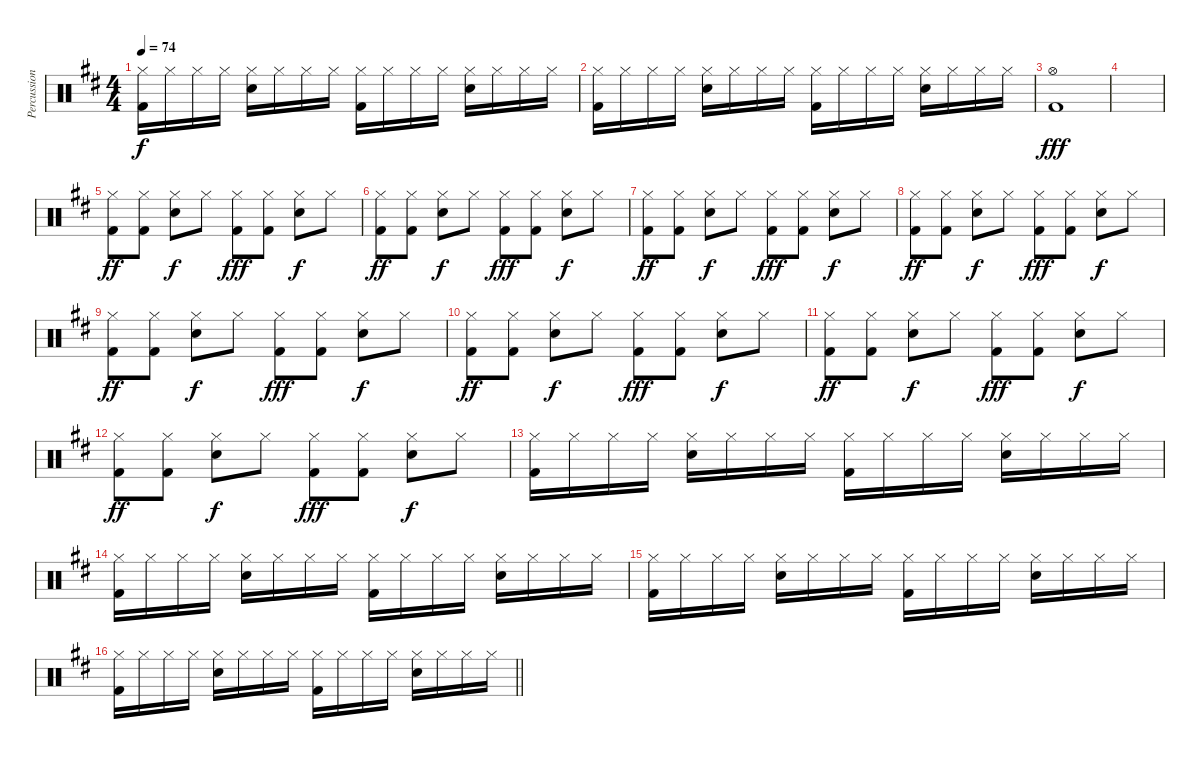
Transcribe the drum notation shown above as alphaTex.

\track ("Percussion" "Percussion") {instrument percussion}
\staff {score}
\articulation defaults
\ts (4 4)
\tempo 74
\clef neutral
\ks d
("Hi-Hat (closed)" "Kick (hit) 2").16{dy f} "Hi-Hat (closed)".16 "Hi-Hat (closed)".16 "Hi-Hat (closed)".16 ("Hi-Hat (closed)" "Snare (hit) 2").16 "Hi-Hat (closed)".16 "Hi-Hat (closed)".16 "Hi-Hat (closed)".16 ("Hi-Hat (closed)" "Kick (hit) 2").16 "Hi-Hat (closed)".16 "Hi-Hat (closed)".16 "Hi-Hat (closed)".16 ("Hi-Hat (closed)" "Snare (hit) 2").16 "Hi-Hat (closed)".16 "Hi-Hat (closed)".16 "Hi-Hat (closed)".16 |
("Hi-Hat (closed)" "Kick (hit) 2").16 "Hi-Hat (closed)".16 "Hi-Hat (closed)".16 "Hi-Hat (closed)".16 ("Hi-Hat (closed)" "Snare (hit) 2").16 "Hi-Hat (closed)".16 "Hi-Hat (closed)".16 "Hi-Hat (closed)".16 ("Hi-Hat (closed)" "Kick (hit) 2").16 "Hi-Hat (closed)".16 "Hi-Hat (closed)".16 "Hi-Hat (closed)".16 ("Hi-Hat (closed)" "Snare (hit) 2").16 "Hi-Hat (closed)".16 "Hi-Hat (closed)".16 "Hi-Hat (closed)".16 |
("Hi-Hat (open)" "Kick (hit) 2").1{dy fff} |
|
("Hi-Hat (closed)" "Kick (hit) 2").8{dy ff} ("Hi-Hat (closed)" "Kick (hit) 2").8 ("Hi-Hat (closed)" "Snare (hit) 2").8{dy f} "Hi-Hat (closed)".8 ("Hi-Hat (closed)" "Kick (hit) 2").8{dy fff} ("Hi-Hat (closed)" "Kick (hit) 2").8 ("Hi-Hat (closed)" "Snare (hit) 2").8{dy f} "Hi-Hat (closed)".8 |
("Hi-Hat (closed)" "Kick (hit) 2").8{dy ff} ("Hi-Hat (closed)" "Kick (hit) 2").8 ("Hi-Hat (closed)" "Snare (hit) 2").8{dy f} "Hi-Hat (closed)".8 ("Hi-Hat (closed)" "Kick (hit) 2").8{dy fff} ("Hi-Hat (closed)" "Kick (hit) 2").8 ("Hi-Hat (closed)" "Snare (hit) 2").8{dy f} "Hi-Hat (closed)".8 |
("Hi-Hat (closed)" "Kick (hit) 2").8{dy ff} ("Hi-Hat (closed)" "Kick (hit) 2").8 ("Hi-Hat (closed)" "Snare (hit) 2").8{dy f} "Hi-Hat (closed)".8 ("Hi-Hat (closed)" "Kick (hit) 2").8{dy fff} ("Hi-Hat (closed)" "Kick (hit) 2").8 ("Hi-Hat (closed)" "Snare (hit) 2").8{dy f} "Hi-Hat (closed)".8 |
("Hi-Hat (closed)" "Kick (hit) 2").8{dy ff} ("Hi-Hat (closed)" "Kick (hit) 2").8 ("Hi-Hat (closed)" "Snare (hit) 2").8{dy f} "Hi-Hat (closed)".8 ("Hi-Hat (closed)" "Kick (hit) 2").8{dy fff} ("Hi-Hat (closed)" "Kick (hit) 2").8 ("Hi-Hat (closed)" "Snare (hit) 2").8{dy f} "Hi-Hat (closed)".8 |
("Hi-Hat (closed)" "Kick (hit) 2").8{dy ff} ("Hi-Hat (closed)" "Kick (hit) 2").8 ("Hi-Hat (closed)" "Snare (hit) 2").8{dy f} "Hi-Hat (closed)".8 ("Hi-Hat (closed)" "Kick (hit) 2").8{dy fff} ("Hi-Hat (closed)" "Kick (hit) 2").8 ("Hi-Hat (closed)" "Snare (hit) 2").8{dy f} "Hi-Hat (closed)".8 |
("Hi-Hat (closed)" "Kick (hit) 2").8{dy ff} ("Hi-Hat (closed)" "Kick (hit) 2").8 ("Hi-Hat (closed)" "Snare (hit) 2").8{dy f} "Hi-Hat (closed)".8 ("Hi-Hat (closed)" "Kick (hit) 2").8{dy fff} ("Hi-Hat (closed)" "Kick (hit) 2").8 ("Hi-Hat (closed)" "Snare (hit) 2").8{dy f} "Hi-Hat (closed)".8 |
("Hi-Hat (closed)" "Kick (hit) 2").8{dy ff} ("Hi-Hat (closed)" "Kick (hit) 2").8 ("Hi-Hat (closed)" "Snare (hit) 2").8{dy f} "Hi-Hat (closed)".8 ("Hi-Hat (closed)" "Kick (hit) 2").8{dy fff} ("Hi-Hat (closed)" "Kick (hit) 2").8 ("Hi-Hat (closed)" "Snare (hit) 2").8{dy f} "Hi-Hat (closed)".8 |
("Hi-Hat (closed)" "Kick (hit) 2").8{dy ff} ("Hi-Hat (closed)" "Kick (hit) 2").8 ("Hi-Hat (closed)" "Snare (hit) 2").8{dy f} "Hi-Hat (closed)".8 ("Hi-Hat (closed)" "Kick (hit) 2").8{dy fff} ("Hi-Hat (closed)" "Kick (hit) 2").8 ("Hi-Hat (closed)" "Snare (hit) 2").8{dy f} "Hi-Hat (closed)".8 |
("Hi-Hat (closed)" "Kick (hit) 2").16 "Hi-Hat (closed)".16 "Hi-Hat (closed)".16 "Hi-Hat (closed)".16 ("Hi-Hat (closed)" "Snare (hit) 2").16 "Hi-Hat (closed)".16 "Hi-Hat (closed)".16 "Hi-Hat (closed)".16 ("Hi-Hat (closed)" "Kick (hit) 2").16 "Hi-Hat (closed)".16 "Hi-Hat (closed)".16 "Hi-Hat (closed)".16 ("Hi-Hat (closed)" "Snare (hit) 2").16 "Hi-Hat (closed)".16 "Hi-Hat (closed)".16 "Hi-Hat (closed)".16 |
("Hi-Hat (closed)" "Kick (hit) 2").16 "Hi-Hat (closed)".16 "Hi-Hat (closed)".16 "Hi-Hat (closed)".16 ("Hi-Hat (closed)" "Snare (hit) 2").16 "Hi-Hat (closed)".16 "Hi-Hat (closed)".16 "Hi-Hat (closed)".16 ("Hi-Hat (closed)" "Kick (hit) 2").16 "Hi-Hat (closed)".16 "Hi-Hat (closed)".16 "Hi-Hat (closed)".16 ("Hi-Hat (closed)" "Snare (hit) 2").16 "Hi-Hat (closed)".16 "Hi-Hat (closed)".16 "Hi-Hat (closed)".16 |
("Hi-Hat (closed)" "Kick (hit) 2").16 "Hi-Hat (closed)".16 "Hi-Hat (closed)".16 "Hi-Hat (closed)".16 ("Hi-Hat (closed)" "Snare (hit) 2").16 "Hi-Hat (closed)".16 "Hi-Hat (closed)".16 "Hi-Hat (closed)".16 ("Hi-Hat (closed)" "Kick (hit) 2").16 "Hi-Hat (closed)".16 "Hi-Hat (closed)".16 "Hi-Hat (closed)".16 ("Hi-Hat (closed)" "Snare (hit) 2").16 "Hi-Hat (closed)".16 "Hi-Hat (closed)".16 "Hi-Hat (closed)".16 |
\barLineRight lightlight
("Hi-Hat (closed)" "Kick (hit) 2").16 "Hi-Hat (closed)".16 "Hi-Hat (closed)".16 "Hi-Hat (closed)".16 ("Hi-Hat (closed)" "Snare (hit) 2").16 "Hi-Hat (closed)".16 "Hi-Hat (closed)".16 "Hi-Hat (closed)".16 ("Hi-Hat (closed)" "Kick (hit) 2").16 "Hi-Hat (closed)".16 "Hi-Hat (closed)".16 "Hi-Hat (closed)".16 ("Hi-Hat (closed)" "Snare (hit) 2").16 "Hi-Hat (closed)".16 "Hi-Hat (closed)".16 "Hi-Hat (closed)".16
